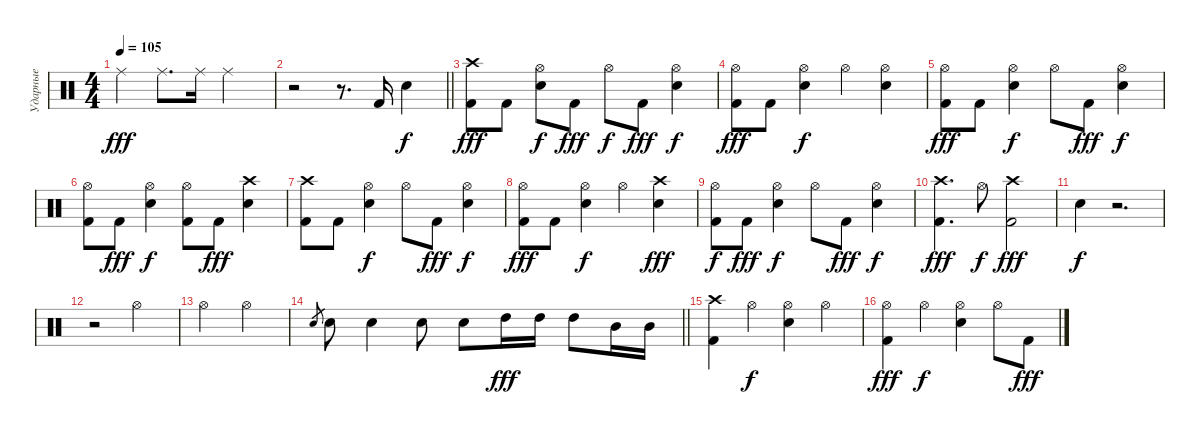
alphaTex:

\track ("Ударные" "Ударные") {instrument percussion}
\staff {score}
\articulation defaults
\ts (4 4)
\tempo 105
\clef neutral
\ks c "Ride (middle)".4{dy fff} "Ride (middle)".8{d} "Ride (middle)".16 "Ride (middle)".2
|
\barLineRight lightlight
r.2 r.8{d} "Kick (hit) 2".16 "Snare (hit) 2".4{dy f} |
("Kick (hit) 2" "Crash high (hit)").8{dy fff} "Kick (hit) 2".8 ("Snare (hit) 2" "Hi-Hat (open)").8{dy f} "Kick (hit) 2".8{dy fff} "Hi-Hat (open)".8{dy f} "Kick (hit) 2".8{dy fff} ("Snare (hit) 2" "Hi-Hat (open)").4{dy f} |
("Kick (hit) 2" "Hi-Hat (open)").8{dy fff} "Kick (hit) 2".8 ("Snare (hit) 2" "Hi-Hat (open)").4{dy f} "Hi-Hat (open)".4 ("Snare (hit) 2" "Hi-Hat (open)").4 |
("Kick (hit) 2" "Hi-Hat (open)").8{dy fff} "Kick (hit) 2".8 ("Snare (hit) 2" "Hi-Hat (open)").4{dy f} "Hi-Hat (open)".8 "Kick (hit) 2".8{dy fff} ("Snare (hit) 2" "Hi-Hat (open)").4{dy f} |
("Kick (hit) 2" "Hi-Hat (open)").8 "Kick (hit) 2".8{dy fff} ("Snare (hit) 2" "Hi-Hat (open)").4{dy f} ("Kick (hit) 2" "Hi-Hat (open)").8 "Kick (hit) 2".8{dy fff} ("Snare (hit) 2" "Crash high (hit)").4 |
("Kick (hit) 2" "Crash high (hit)").8 "Kick (hit) 2".8 ("Snare (hit) 2" "Hi-Hat (open)").4{dy f} "Hi-Hat (open)".8 "Kick (hit) 2".8{dy fff} ("Snare (hit) 2" "Hi-Hat (open)").4{dy f} |
("Kick (hit) 2" "Hi-Hat (open)").8{dy fff} "Kick (hit) 2".8 ("Snare (hit) 2" "Hi-Hat (open)").4{dy f} "Hi-Hat (open)".4 ("Snare (hit) 2" "Crash high (hit)").4{dy fff} |
("Kick (hit) 2" "Hi-Hat (open)").8{dy f} "Kick (hit) 2".8{dy fff} ("Snare (hit) 2" "Hi-Hat (open)").4{dy f} "Hi-Hat (open)".8 "Kick (hit) 2".8{dy fff} ("Snare (hit) 2" "Hi-Hat (open)").4{dy f} |
("Kick (hit) 2" "Crash high (hit)").4{d dy fff} "Hi-Hat (open)".8{dy f} ("Kick (hit) 2" "Crash high (hit)").2{dy fff} |
"Snare (hit) 2".4{dy f} r.2{d} |
r.2 "Hi-Hat (open)".2 |
"Hi-Hat (open)".2 "Hi-Hat (open)".2 |
\barLineRight lightlight "Snare (hit) 2".8{gr} "Snare (hit) 2".8 "Snare (hit) 2".4 "Electric Snare (hit)".8 "Electric Snare (hit)".8 "High Tom (hit)".16{dy fff} "High Tom (hit)".16 "High Tom (hit)".8 "Mid Tom (hit)".16 "Mid Tom (hit)".16
|
("Kick (hit) 2" "Crash high (hit)").4 "Hi-Hat (open)".4{dy f} ("Snare (hit) 2" "Hi-Hat (open)").4 "Hi-Hat (open)".4 |
("Kick (hit) 2" "Hi-Hat (open)").4{dy fff} "Hi-Hat (open)".4{dy f} ("Snare (hit) 2" "Hi-Hat (open)").4 "Hi-Hat (open)".8 "Kick (hit) 2".8{dy fff}
